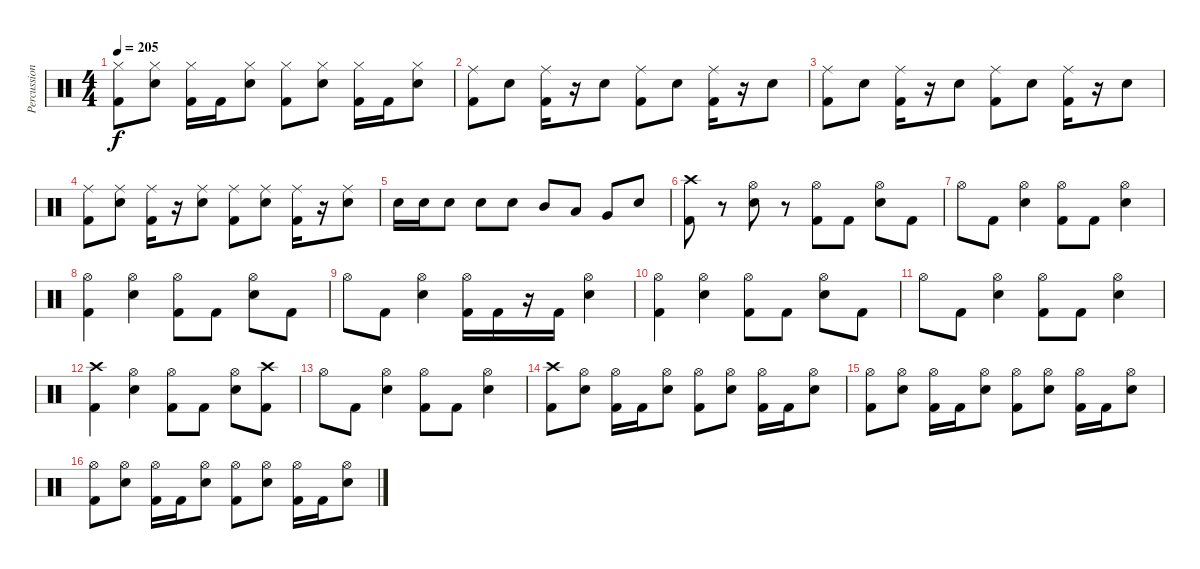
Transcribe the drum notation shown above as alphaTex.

\track ("Percussions" "Percussion") {instrument percussion}
\staff {score}
\articulation defaults
\ts (4 4)
\tempo 205
\clef neutral
\ks c
("Hi-Hat (closed)" "Kick (hit) 2").8{dy f} ("Hi-Hat (closed)" "Snare (hit) 2").8 ("Hi-Hat (closed)" "Kick (hit) 2").16 "Kick (hit) 2".16 ("Hi-Hat (closed)" "Snare (hit) 2").8 ("Hi-Hat (closed)" "Kick (hit) 2").8 ("Hi-Hat (closed)" "Snare (hit) 2").8 ("Hi-Hat (closed)" "Kick (hit) 2").16 "Kick (hit) 2".16 ("Hi-Hat (closed)" "Snare (hit) 2").8 |
("Ride (middle)" "Kick (hit) 2").8 "Snare (hit) 2".8 ("Ride (middle)" "Kick (hit) 2").16 r.16 "Snare (hit) 2".8 ("Ride (middle)" "Kick (hit) 2").8 "Snare (hit) 2".8 ("Ride (middle)" "Kick (hit) 2").16 r.16 "Snare (hit) 2".8 |
("Ride (middle)" "Kick (hit) 2").8 "Snare (hit) 2".8 ("Ride (middle)" "Kick (hit) 2").16 r.16 "Snare (hit) 2".8 ("Ride (middle)" "Kick (hit) 2").8 "Snare (hit) 2".8 ("Ride (middle)" "Kick (hit) 2").16 r.16 "Snare (hit) 2".8 |
("Ride (middle)" "Kick (hit) 2").8 ("Ride (middle)" "Snare (hit) 2").8 ("Ride (middle)" "Kick (hit) 2").16 r.16 ("Ride (middle)" "Snare (hit) 2").8 ("Ride (middle)" "Kick (hit) 2").8 ("Ride (middle)" "Snare (hit) 2").8 ("Ride (middle)" "Kick (hit) 2").16 r.16 ("Ride (middle)" "Snare (hit) 2").8 |
"Snare (hit) 2".16 "Snare (hit) 2".16 "Snare (hit) 2".8 "Snare (hit) 2".8 "Snare (hit) 2".8 "Mid Tom (hit)".8 "Low Tom (hit)".8 "Very Low Tom (hit)".8 "Snare (hit) 2".8 |
("Crash high (hit)" "Kick (hit) 2").8 r.8 ("Hi-Hat (open)" "Snare (hit) 2").8 r.8 ("Hi-Hat (open)" "Kick (hit) 2").8 "Kick (hit) 2".8 ("Hi-Hat (open)" "Snare (hit) 2").8 "Kick (hit) 2".8 |
"Hi-Hat (open)".8 "Kick (hit) 2".8 ("Hi-Hat (open)" "Snare (hit) 2").4 ("Hi-Hat (open)" "Kick (hit) 2").8 "Kick (hit) 2".8 ("Hi-Hat (open)" "Snare (hit) 2").4 |
("Hi-Hat (open)" "Kick (hit) 2").4 ("Hi-Hat (open)" "Snare (hit) 2").4 ("Hi-Hat (open)" "Kick (hit) 2").8 "Kick (hit) 2".8 ("Hi-Hat (open)" "Snare (hit) 2").8 "Kick (hit) 2".8 |
"Hi-Hat (open)".8 "Kick (hit) 2".8 ("Hi-Hat (open)" "Snare (hit) 2").4 ("Hi-Hat (open)" "Kick (hit) 2").16 "Kick (hit) 2".16 r.16 "Kick (hit) 2".16 ("Hi-Hat (open)" "Snare (hit) 2").4 |
("Hi-Hat (open)" "Kick (hit) 2").4 ("Hi-Hat (open)" "Snare (hit) 2").4 ("Hi-Hat (open)" "Kick (hit) 2").8 "Kick (hit) 2".8 ("Hi-Hat (open)" "Snare (hit) 2").8 "Kick (hit) 2".8 |
"Hi-Hat (open)".8 "Kick (hit) 2".8 ("Hi-Hat (open)" "Snare (hit) 2").4 ("Hi-Hat (open)" "Kick (hit) 2").8 "Kick (hit) 2".8 ("Hi-Hat (open)" "Snare (hit) 2").4 |
("Crash high (hit)" "Kick (hit) 2").4 ("Hi-Hat (open)" "Snare (hit) 2").4 ("Hi-Hat (open)" "Kick (hit) 2").8 "Kick (hit) 2".8 ("Hi-Hat (open)" "Snare (hit) 2").8 ("Crash high (hit)" "Kick (hit) 2").8 |
"Hi-Hat (open)".8 "Kick (hit) 2".8 ("Hi-Hat (open)" "Snare (hit) 2").4 ("Hi-Hat (open)" "Kick (hit) 2").8 "Kick (hit) 2".8 ("Hi-Hat (open)" "Snare (hit) 2").4 |
("Crash high (hit)" "Kick (hit) 2").8 ("Hi-Hat (open)" "Snare (hit) 2").8 ("Hi-Hat (open)" "Kick (hit) 2").16 "Kick (hit) 2".16 ("Hi-Hat (open)" "Snare (hit) 2").8 ("Hi-Hat (open)" "Kick (hit) 2").8 ("Hi-Hat (open)" "Snare (hit) 2").8 ("Hi-Hat (open)" "Kick (hit) 2").16 "Kick (hit) 2".16 ("Hi-Hat (open)" "Snare (hit) 2").8 |
("Hi-Hat (open)" "Kick (hit) 2").8 ("Hi-Hat (open)" "Snare (hit) 2").8 ("Hi-Hat (open)" "Kick (hit) 2").16 "Kick (hit) 2".16 ("Hi-Hat (open)" "Snare (hit) 2").8 ("Hi-Hat (open)" "Kick (hit) 2").8 ("Hi-Hat (open)" "Snare (hit) 2").8 ("Hi-Hat (open)" "Kick (hit) 2").16 "Kick (hit) 2".16 ("Hi-Hat (open)" "Snare (hit) 2").8 |
("Hi-Hat (open)" "Kick (hit) 2").8 ("Hi-Hat (open)" "Snare (hit) 2").8 ("Hi-Hat (open)" "Kick (hit) 2").16 "Kick (hit) 2".16 ("Hi-Hat (open)" "Snare (hit) 2").8 ("Hi-Hat (open)" "Kick (hit) 2").8 ("Hi-Hat (open)" "Snare (hit) 2").8 ("Hi-Hat (open)" "Kick (hit) 2").16 "Kick (hit) 2".16 ("Hi-Hat (open)" "Snare (hit) 2").8
